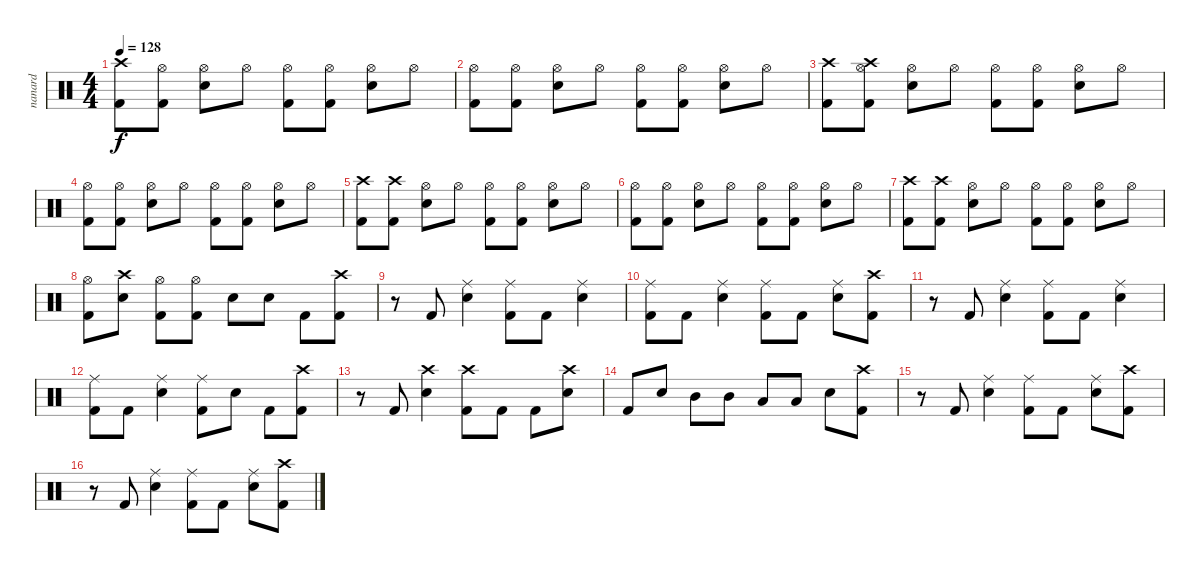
\track ("nanard" "nanard") {instrument percussion}
\staff {score}
\articulation defaults
\ts (4 4)
\tempo 128
\clef neutral
\ks c
("Crash high (hit)" "Kick (hit) 2").8{dy f} ("Hi-Hat (open)" "Kick (hit) 2").8 ("Hi-Hat (open)" "Electric Snare (hit)").8 "Hi-Hat (open)".8 ("Hi-Hat (open)" "Kick (hit) 2").8 ("Hi-Hat (open)" "Kick (hit) 2").8 ("Hi-Hat (open)" "Electric Snare (hit)").8 "Hi-Hat (open)".8 |
("Hi-Hat (open)" "Kick (hit) 2").8 ("Hi-Hat (open)" "Kick (hit) 2").8 ("Hi-Hat (open)" "Electric Snare (hit)").8 "Hi-Hat (open)".8 ("Hi-Hat (open)" "Kick (hit) 2").8 ("Hi-Hat (open)" "Kick (hit) 2").8 ("Hi-Hat (open)" "Electric Snare (hit)").8 "Hi-Hat (open)".8 |
("Crash high (hit)" "Kick (hit) 2").8 ("Crash high (hit)" "Hi-Hat (open)" "Kick (hit) 2").8 ("Hi-Hat (open)" "Electric Snare (hit)").8 "Hi-Hat (open)".8 ("Hi-Hat (open)" "Kick (hit) 2").8 ("Hi-Hat (open)" "Kick (hit) 2").8 ("Hi-Hat (open)" "Electric Snare (hit)").8 "Hi-Hat (open)".8 |
("Hi-Hat (open)" "Kick (hit) 2").8 ("Hi-Hat (open)" "Kick (hit) 2").8 ("Hi-Hat (open)" "Electric Snare (hit)").8 "Hi-Hat (open)".8 ("Hi-Hat (open)" "Kick (hit) 2").8 ("Hi-Hat (open)" "Kick (hit) 2").8 ("Hi-Hat (open)" "Electric Snare (hit)").8 "Hi-Hat (open)".8 |
("Crash high (hit)" "Kick (hit) 2").8 ("Crash high (hit)" "Kick (hit) 2").8 ("Hi-Hat (open)" "Electric Snare (hit)").8 "Hi-Hat (open)".8 ("Hi-Hat (open)" "Kick (hit) 2").8 ("Hi-Hat (open)" "Kick (hit) 2").8 ("Hi-Hat (open)" "Electric Snare (hit)").8 "Hi-Hat (open)".8 |
("Hi-Hat (open)" "Kick (hit) 2").8 ("Hi-Hat (open)" "Kick (hit) 2").8 ("Hi-Hat (open)" "Electric Snare (hit)").8 "Hi-Hat (open)".8 ("Hi-Hat (open)" "Kick (hit) 2").8 ("Hi-Hat (open)" "Kick (hit) 2").8 ("Hi-Hat (open)" "Electric Snare (hit)").8 "Hi-Hat (open)".8 |
("Crash high (hit)" "Kick (hit) 2").8 ("Crash high (hit)" "Kick (hit) 2").8 ("Hi-Hat (open)" "Electric Snare (hit)").8 "Hi-Hat (open)".8 ("Hi-Hat (open)" "Kick (hit) 2").8 ("Hi-Hat (open)" "Kick (hit) 2").8 ("Hi-Hat (open)" "Electric Snare (hit)").8 "Hi-Hat (open)".8 |
("Hi-Hat (open)" "Kick (hit) 2").8 ("Crash high (hit)" "Electric Snare (hit)").8 ("Hi-Hat (open)" "Kick (hit) 2").8 ("Hi-Hat (open)" "Kick (hit) 2").8 "Electric Snare (hit)".8 "Electric Snare (hit)".8 "Kick (hit) 2".8 ("Crash high (hit)" "Kick (hit) 2").8 |
r.8 "Kick (hit) 2".8 ("Ride (middle)" "Electric Snare (hit)").4 ("Ride (middle)" "Kick (hit) 2").8 "Kick (hit) 2".8 ("Ride (middle)" "Electric Snare (hit)").4 |
("Ride (middle)" "Kick (hit) 2").8 "Kick (hit) 2".8 ("Ride (middle)" "Electric Snare (hit)").4 ("Ride (middle)" "Kick (hit) 2").8 "Kick (hit) 2".8 ("Ride (middle)" "Electric Snare (hit)").8 ("Crash high (hit)" "Kick (hit) 2").8 |
r.8 "Kick (hit) 2".8 ("Ride (middle)" "Electric Snare (hit)").4 ("Ride (middle)" "Kick (hit) 2").8 "Kick (hit) 2".8 ("Ride (middle)" "Electric Snare (hit)").4 |
("Ride (middle)" "Kick (hit) 2").8 "Kick (hit) 2".8 ("Ride (middle)" "Electric Snare (hit)").4 ("Ride (middle)" "Kick (hit) 2").8 "Electric Snare (hit)".8 "Kick (hit) 2".8 ("Crash high (hit)" "Kick (hit) 2").8 |
r.8 "Kick (hit) 2".8 ("Crash high (hit)" "Electric Snare (hit)").4 ("Crash high (hit)" "Kick (hit) 2").8 "Kick (hit) 2".8 "Kick (hit) 2".8 ("Crash high (hit)" "Electric Snare (hit)").8 |
"Kick (hit) 2".8 "Electric Snare (hit)".8 "Mid Tom (hit)".8 "Mid Tom (hit)".8 "Low Tom (hit)".8 "Low Floor Tom (hit)".8 "Electric Snare (hit)".8 ("Crash high (hit)" "Kick (hit) 2").8 |
r.8 "Kick (hit) 2".8 ("Ride (middle)" "Electric Snare (hit)").4 ("Ride (middle)" "Kick (hit) 2").8 "Kick (hit) 2".8 ("Ride (middle)" "Electric Snare (hit)").8 ("Crash high (hit)" "Kick (hit) 2").8 |
r.8 "Kick (hit) 2".8 ("Ride (middle)" "Electric Snare (hit)").4 ("Ride (middle)" "Kick (hit) 2").8 "Kick (hit) 2".8 ("Ride (middle)" "Electric Snare (hit)").8 ("Crash high (hit)" "Kick (hit) 2").8
